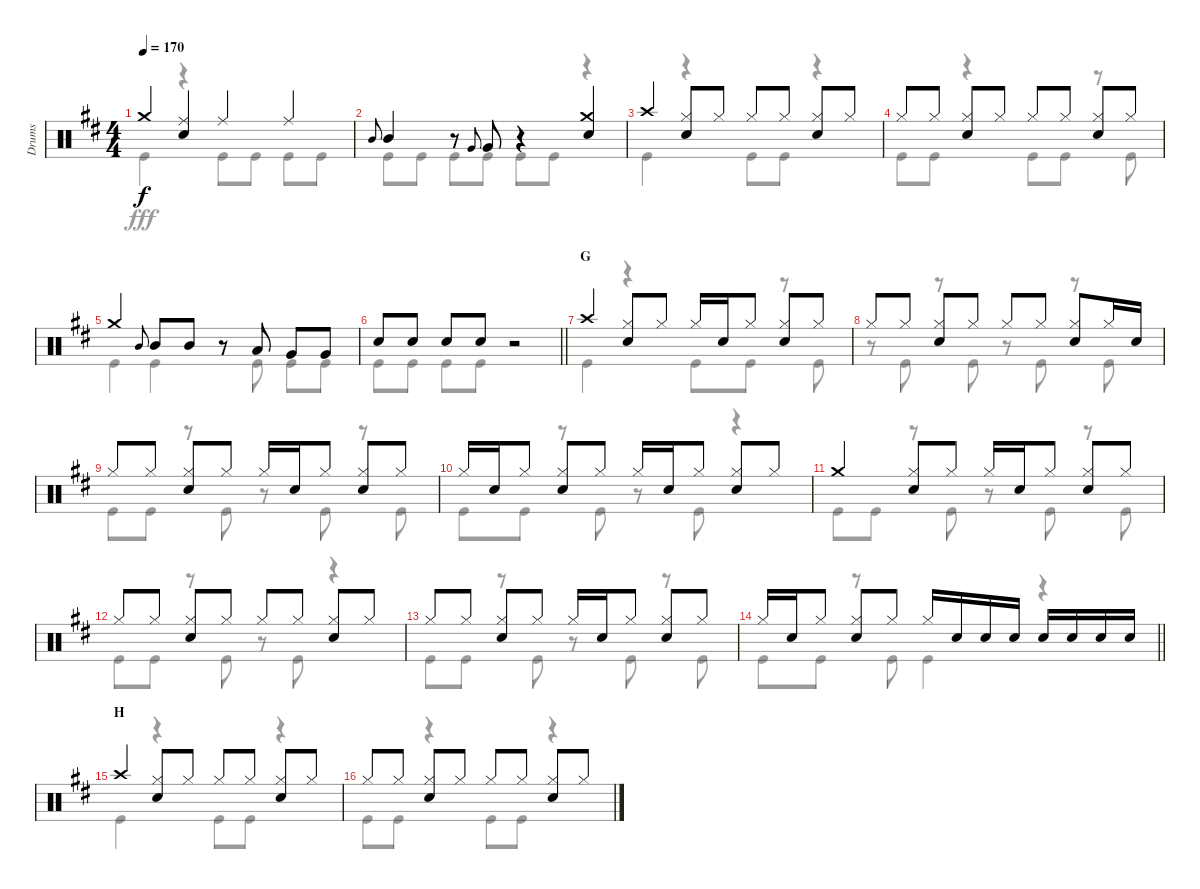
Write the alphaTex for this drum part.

\track ("Drums" "Drums") {instrument percussion}
\staff {score}
\articulation defaults
\voice
\ts (4 4)
\tempo 170
\clef neutral
\ks d "Crash medium (hit)".4{dy f}
("Ride (middle)" "Snare (hit) 2").4 "Ride (middle)".4 "Ride (middle)".4 |
"Mid Tom (hit)".8{gr onbeat} "Mid Tom (hit)".4 r.8 "Very Low Tom (hit)".8{gr onbeat} "Very Low Tom (hit)".8 r.4 ("Crash medium (hit)" "Snare (hit) 2").4 |
"Crash high (hit)".4 ("Hi-Hat (closed)" "Snare (hit) 2").8 "Hi-Hat (closed)".8 "Hi-Hat (closed)".8 "Hi-Hat (closed)".8 ("Hi-Hat (closed)" "Snare (hit) 2").8 "Hi-Hat (closed)".8 |
"Hi-Hat (closed)".8 "Hi-Hat (closed)".8 ("Hi-Hat (closed)" "Snare (hit) 2").8 "Hi-Hat (closed)".8 "Hi-Hat (closed)".8 "Hi-Hat (closed)".8 ("Hi-Hat (closed)" "Snare (hit) 2").8 "Hi-Hat (closed)".8 |
"Crash medium (hit)".4 "Mid Tom (hit)".8{gr onbeat} "Mid Tom (hit)".8 "Mid Tom (hit)".8 r.8 "Low Tom (hit)".8 "Very Low Tom (hit)".8 "Very Low Tom (hit)".8 |
\barLineRight lightlight "Snare (hit) 2".8 "Snare (hit) 2".8 "Snare (hit) 2".8 "Snare (hit) 2".8
r.2 |
\section ("" "G")
"Crash high (hit)".4 ("Hi-Hat (closed)" "Snare (hit) 2").8 "Hi-Hat (closed)".8 "Hi-Hat (closed)".16 "Snare (hit) 2".16 "Hi-Hat (closed)".8 ("Hi-Hat (closed)" "Snare (hit) 2").8 "Hi-Hat (closed)".8 |
"Hi-Hat (closed)".8 "Hi-Hat (closed)".8 ("Hi-Hat (closed)" "Snare (hit) 2").8 "Hi-Hat (closed)".8 "Hi-Hat (closed)".8 "Hi-Hat (closed)".8 ("Hi-Hat (closed)" "Snare (hit) 2").8 "Hi-Hat (closed)".16 "Snare (hit) 2".16 |
"Hi-Hat (closed)".8 "Hi-Hat (closed)".8 ("Hi-Hat (closed)" "Snare (hit) 2").8 "Hi-Hat (closed)".8 "Hi-Hat (closed)".16 "Snare (hit) 2".16 "Hi-Hat (closed)".8 ("Hi-Hat (closed)" "Snare (hit) 2").8 "Hi-Hat (closed)".8 |
"Hi-Hat (closed)".16 "Snare (hit) 2".16 "Hi-Hat (closed)".8 ("Hi-Hat (closed)" "Snare (hit) 2").8 "Hi-Hat (closed)".8 "Hi-Hat (closed)".16 "Snare (hit) 2".16 "Hi-Hat (closed)".8 ("Hi-Hat (closed)" "Snare (hit) 2").8 "Hi-Hat (closed)".8 |
"Crash medium (hit)".4 ("Hi-Hat (closed)" "Snare (hit) 2").8 "Hi-Hat (closed)".8 "Hi-Hat (closed)".16 "Snare (hit) 2".16 "Hi-Hat (closed)".8 ("Hi-Hat (closed)" "Snare (hit) 2").8 "Hi-Hat (closed)".8 |
"Hi-Hat (closed)".8 "Hi-Hat (closed)".8 ("Hi-Hat (closed)" "Snare (hit) 2").8 "Hi-Hat (closed)".8 "Hi-Hat (closed)".8 "Hi-Hat (closed)".8 ("Hi-Hat (closed)" "Snare (hit) 2").8 "Hi-Hat (closed)".8 |
"Hi-Hat (closed)".8 "Hi-Hat (closed)".8 ("Hi-Hat (closed)" "Snare (hit) 2").8 "Hi-Hat (closed)".8 "Hi-Hat (closed)".16 "Snare (hit) 2".16 "Hi-Hat (closed)".8 ("Hi-Hat (closed)" "Snare (hit) 2").8 "Hi-Hat (closed)".8 |
\barLineRight lightlight "Hi-Hat (closed)".16 "Snare (hit) 2".16 "Hi-Hat (closed)".8
("Hi-Hat (closed)" "Snare (hit) 2").8 "Hi-Hat (closed)".8 "Hi-Hat (closed)".16 "Snare (hit) 2".16 "Snare (hit) 2".16 "Snare (hit) 2".16 "Snare (hit) 2".16 "Snare (hit) 2".16 "Snare (hit) 2".16 "Snare (hit) 2".16 |
\section ("" "H")
"Crash high (hit)".4 ("Hi-Hat (closed)" "Snare (hit) 2").8 "Hi-Hat (closed)".8 "Hi-Hat (closed)".8 "Hi-Hat (closed)".8 ("Hi-Hat (closed)" "Snare (hit) 2").8 "Hi-Hat (closed)".8 |
"Hi-Hat (closed)".8 "Hi-Hat (closed)".8 ("Hi-Hat (closed)" "Snare (hit) 2").8 "Hi-Hat (closed)".8 "Hi-Hat (closed)".8 "Hi-Hat (closed)".8 ("Hi-Hat (closed)" "Snare (hit) 2").8 "Hi-Hat (closed)".8
\voice
\clef neutral
\ottava regular
\simile none
\ks d "Kick (hit)".4{dy fff}
r.4 "Kick (hit)".8 "Kick (hit)".8 "Kick (hit)".8 "Kick (hit)".8 |
"Kick (hit)".8 "Kick (hit)".8 "Kick (hit)".8 "Kick (hit)".8 "Kick (hit)".8 "Kick (hit)".8 r.4 |
"Kick (hit)".4 r.4 "Kick (hit)".8 "Kick (hit)".8 r.4 |
"Kick (hit)".8 "Kick (hit)".8 r.4 "Kick (hit)".8 "Kick (hit)".8 r.8 "Kick (hit)".8 |
"Kick (hit)".4 "Kick (hit)".4 r.8 "Kick (hit)".8 "Kick (hit)".8 "Kick (hit)".8 |
\barLineRight lightlight "Kick (hit)".8 "Kick (hit)".8 "Kick (hit)".8 "Kick (hit)".8
r.2 |
"Kick (hit)".4 r.4 "Kick (hit)".8 "Kick (hit)".8 r.8 "Kick (hit)".8 |
r.8 "Kick (hit)".8 r.8 "Kick (hit)".8 r.8 "Kick (hit)".8 r.8 "Kick (hit)".8 |
"Kick (hit)".8 "Kick (hit)".8 r.8 "Kick (hit)".8 r.8 "Kick (hit)".8 r.8 "Kick (hit)".8 |
"Kick (hit)".8 "Kick (hit)".8 r.8 "Kick (hit)".8 r.8 "Kick (hit)".8 r.4 |
"Kick (hit)".8 "Kick (hit)".8 r.8 "Kick (hit)".8 r.8 "Kick (hit)".8 r.8 "Kick (hit)".8 |
"Kick (hit)".8 "Kick (hit)".8 r.8 "Kick (hit)".8 r.8 "Kick (hit)".8 r.4 |
"Kick (hit)".8 "Kick (hit)".8 r.8 "Kick (hit)".8 r.8 "Kick (hit)".8 r.8 "Kick (hit)".8 |
\barLineRight lightlight "Kick (hit)".8 "Kick (hit)".8
r.8 "Kick (hit)".8 "Kick (hit)".4 r.4 |
"Kick (hit)".4 r.4 "Kick (hit)".8 "Kick (hit)".8 r.4 |
"Kick (hit)".8 "Kick (hit)".8 r.4 "Kick (hit)".8 "Kick (hit)".8 r.4
